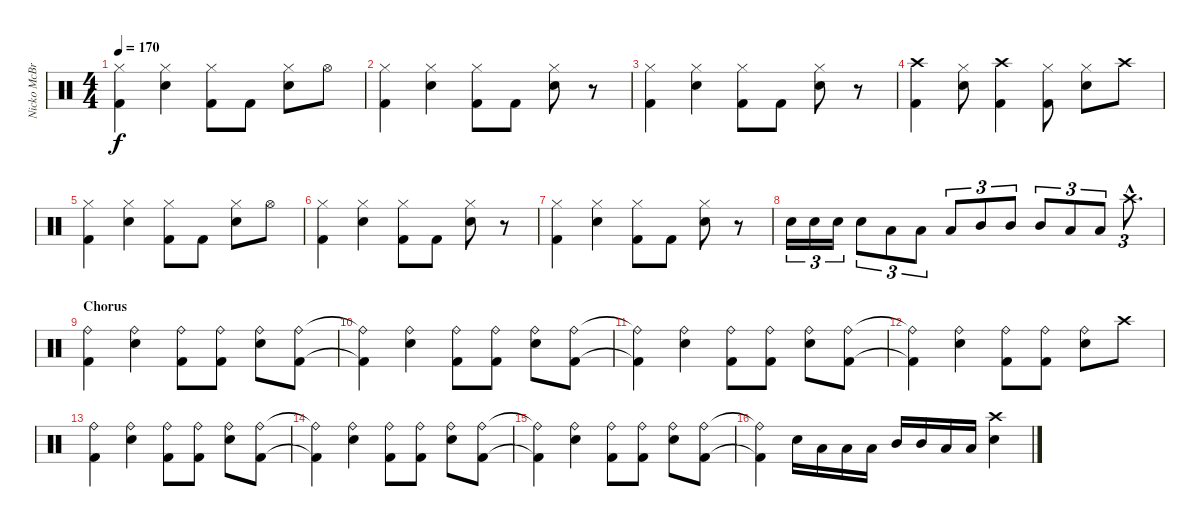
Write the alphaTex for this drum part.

\track ("Nicko McBrain" "Nicko McBr") {instrument percussion}
\staff {score}
\articulation defaults
\ts (4 4)
\tempo 170
\clef neutral
\ks c
("Hi-Hat (closed)" "Kick (hit) 2").4{dy f} ("Hi-Hat (closed)" "Snare (hit) 2").4 ("Hi-Hat (closed)" "Kick (hit) 2").8 "Kick (hit) 2".8 ("Hi-Hat (closed)" "Snare (hit) 2").8 "Hi-Hat (open)".8 |
("Hi-Hat (closed)" "Kick (hit) 2").4 ("Hi-Hat (closed)" "Snare (hit) 2").4 ("Hi-Hat (closed)" "Kick (hit) 2").8 "Kick (hit) 2".8 ("Hi-Hat (closed)" "Snare (hit) 2").8 r.8 |
("Hi-Hat (closed)" "Kick (hit) 2").4 ("Hi-Hat (closed)" "Snare (hit) 2").4 ("Hi-Hat (closed)" "Kick (hit) 2").8 "Kick (hit) 2".8 ("Hi-Hat (closed)" "Snare (hit) 2").8 r.8 |
("Crash high (hit)" "Kick (hit) 2").4 ("Hi-Hat (closed)" "Snare (hit) 2").8 ("Crash high (hit)" "Kick (hit) 2").4 ("Hi-Hat (closed)" "Kick (hit) 2").8 ("Hi-Hat (closed)" "Snare (hit) 2").8 "Crash high (hit)".8 |
("Hi-Hat (closed)" "Kick (hit) 2").4 ("Hi-Hat (closed)" "Snare (hit) 2").4 ("Hi-Hat (closed)" "Kick (hit) 2").8 "Kick (hit) 2".8 ("Hi-Hat (closed)" "Snare (hit) 2").8 "Hi-Hat (open)".8 |
("Hi-Hat (closed)" "Kick (hit) 2").4 ("Hi-Hat (closed)" "Snare (hit) 2").4 ("Hi-Hat (closed)" "Kick (hit) 2").8 "Kick (hit) 2".8 ("Hi-Hat (closed)" "Snare (hit) 2").8 r.8 |
("Hi-Hat (closed)" "Kick (hit) 2").4 ("Hi-Hat (closed)" "Snare (hit) 2").4 ("Hi-Hat (closed)" "Kick (hit) 2").8 "Kick (hit) 2".8 ("Hi-Hat (closed)" "Snare (hit) 2").8 r.8 |
"Snare (hit) 2".16{tu (3 2)} "Snare (hit) 2".16{tu (3 2)} "Snare (hit) 2".16{tu (3 2)} "Snare (hit) 2".8{tu (3 2)} "Low Tom (hit)".8{tu (3 2)} "Low Tom (hit)".8{tu (3 2)} "Low Tom (hit)".8{tu (3 2)} "Mid Tom (hit)".8{tu (3 2)} "Mid Tom (hit)".8{tu (3 2)} "Mid Tom (hit)".8{tu (3 2)} "Low Tom (hit)".8{tu (3 2)} "Low Tom (hit)".8{tu (3 2)} "Crash high (hit)"{hac}.8{d tu (3 2)} |
\section ("" "Chorus")
("Ride (bell)" "Kick (hit) 2").4 ("Ride (bell)" "Snare (hit) 2").4 ("Ride (bell)" "Kick (hit) 2").8 ("Ride (bell)" "Kick (hit) 2").8 ("Ride (bell)" "Snare (hit) 2").8 ("Ride (bell)" "Kick (hit) 2").8 |
("Ride (bell)"{t} "Kick (hit) 2"{t}).4 ("Ride (bell)" "Snare (hit) 2").4 ("Ride (bell)" "Kick (hit) 2").8 ("Ride (bell)" "Kick (hit) 2").8 ("Ride (bell)" "Snare (hit) 2").8 ("Ride (bell)" "Kick (hit) 2").8 |
("Ride (bell)"{t} "Kick (hit) 2"{t}).4 ("Ride (bell)" "Snare (hit) 2").4 ("Ride (bell)" "Kick (hit) 2").8 ("Ride (bell)" "Kick (hit) 2").8 ("Ride (bell)" "Snare (hit) 2").8 ("Ride (bell)" "Kick (hit) 2").8 |
("Ride (bell)"{t} "Kick (hit) 2"{t}).4 ("Ride (bell)" "Snare (hit) 2").4 ("Ride (bell)" "Kick (hit) 2").8 ("Ride (bell)" "Kick (hit) 2").8 ("Ride (bell)" "Snare (hit) 2").8 "Crash high (hit)".8 |
("Ride (bell)" "Kick (hit) 2").4 ("Ride (bell)" "Snare (hit) 2").4 ("Ride (bell)" "Kick (hit) 2").8 ("Ride (bell)" "Kick (hit) 2").8 ("Ride (bell)" "Snare (hit) 2").8 ("Ride (bell)" "Kick (hit) 2").8 |
("Ride (bell)"{t} "Kick (hit) 2"{t}).4 ("Ride (bell)" "Snare (hit) 2").4 ("Ride (bell)" "Kick (hit) 2").8 ("Ride (bell)" "Kick (hit) 2").8 ("Ride (bell)" "Snare (hit) 2").8 ("Ride (bell)" "Kick (hit) 2").8 |
("Ride (bell)"{t} "Kick (hit) 2"{t}).4 ("Ride (bell)" "Snare (hit) 2").4 ("Ride (bell)" "Kick (hit) 2").8 ("Ride (bell)" "Kick (hit) 2").8 ("Ride (bell)" "Snare (hit) 2").8 ("Ride (bell)" "Kick (hit) 2").8 |
("Ride (bell)"{t} "Kick (hit) 2"{t}).4 "Snare (hit) 2".16 "Low Tom (hit)".16 "Low Tom (hit)".16 "Low Tom (hit)".16 "Mid Tom (hit)".16 "Mid Tom (hit)".16 "Low Tom (hit)".16 "Low Tom (hit)".16 ("Crash high (hit)" "Snare (hit) 2").4
